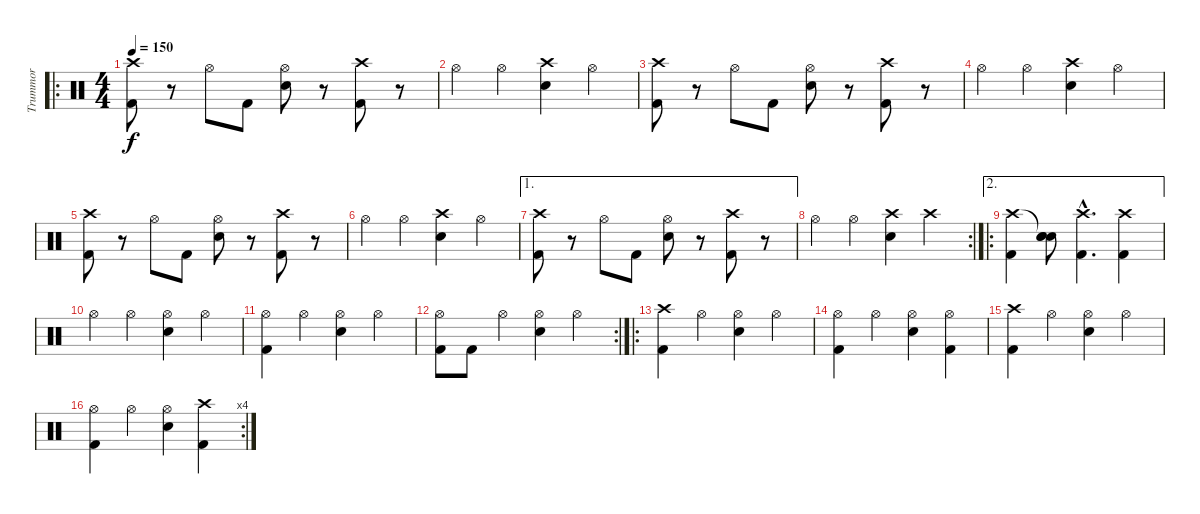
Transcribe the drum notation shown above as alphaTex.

\track ("Trummor" "Trummor") {instrument percussion}
\staff {score}
\articulation defaults
\ro
\ts (4 4)
\tempo 150
\clef neutral
\ks c
("Crash high (hit)" "Kick (hit) 2").8{dy f} r.8 "Hi-Hat (open)".8 "Kick (hit) 2".8 ("Hi-Hat (open)" "Snare (hit) 2").8 r.8 ("Crash high (hit)" "Kick (hit) 2").8 r.8 |
"Hi-Hat (open)".4 "Hi-Hat (open)".4 ("Crash high (hit)" "Snare (hit) 2").4 "Hi-Hat (open)".4 |
("Crash high (hit)" "Kick (hit) 2").8 r.8 "Hi-Hat (open)".8 "Kick (hit) 2".8 ("Hi-Hat (open)" "Snare (hit) 2").8 r.8 ("Crash high (hit)" "Kick (hit) 2").8 r.8 |
"Hi-Hat (open)".4 "Hi-Hat (open)".4 ("Crash high (hit)" "Snare (hit) 2").4 "Hi-Hat (open)".4 |
("Crash high (hit)" "Kick (hit) 2").8 r.8 "Hi-Hat (open)".8 "Kick (hit) 2".8 ("Hi-Hat (open)" "Snare (hit) 2").8 r.8 ("Crash high (hit)" "Kick (hit) 2").8 r.8 |
"Hi-Hat (open)".4 "Hi-Hat (open)".4 ("Crash high (hit)" "Snare (hit) 2").4 "Hi-Hat (open)".4 |
\ae 1
("Crash high (hit)" "Kick (hit) 2").8 r.8 "Hi-Hat (open)".8 "Kick (hit) 2".8 ("Hi-Hat (open)" "Snare (hit) 2").8 r.8 ("Crash high (hit)" "Kick (hit) 2").8 r.8 |
\rc 2 "Hi-Hat (open)".4 "Hi-Hat (open)".4
("Crash high (hit)" "Snare (hit) 2").4 "Crash high (hit)".4 |
\ae 2
\ro
("Crash high (hit)" "Kick (hit) 2").4 ("Snare (hit)"{t} "Snare (hit) 2" "Snare (hit)").8 ("Crash high (hit)"{hac} "Kick (hit) 2"{hac}).4{d} ("Crash high (hit)" "Kick (hit) 2").4 |
"Hi-Hat (open)".4 "Hi-Hat (open)".4 ("Hi-Hat (open)" "Snare (hit) 2").4 "Hi-Hat (open)".4 |
("Hi-Hat (open)" "Kick (hit) 2").4 "Hi-Hat (open)".4 ("Hi-Hat (open)" "Snare (hit) 2").4 "Hi-Hat (open)".4 |
\rc 2
("Hi-Hat (open)" "Kick (hit) 2").8 "Kick (hit) 2".8 "Hi-Hat (open)".4 ("Hi-Hat (open)" "Snare (hit) 2").4 "Hi-Hat (open)".4 |
\ro
("Crash high (hit)" "Kick (hit) 2").4 "Hi-Hat (open)".4 ("Hi-Hat (open)" "Snare (hit) 2").4 "Hi-Hat (open)".4 |
("Hi-Hat (open)" "Kick (hit) 2").4 "Hi-Hat (open)".4 ("Hi-Hat (open)" "Snare (hit) 2").4 ("Hi-Hat (open)" "Kick (hit) 2").4 |
("Crash high (hit)" "Kick (hit) 2").4 "Hi-Hat (open)".4 ("Hi-Hat (open)" "Snare (hit) 2").4 "Hi-Hat (open)".4 |
\rc 4
("Hi-Hat (open)" "Kick (hit) 2").4 "Hi-Hat (open)".4 ("Hi-Hat (open)" "Snare (hit) 2").4 ("Crash high (hit)" "Kick (hit) 2").4
